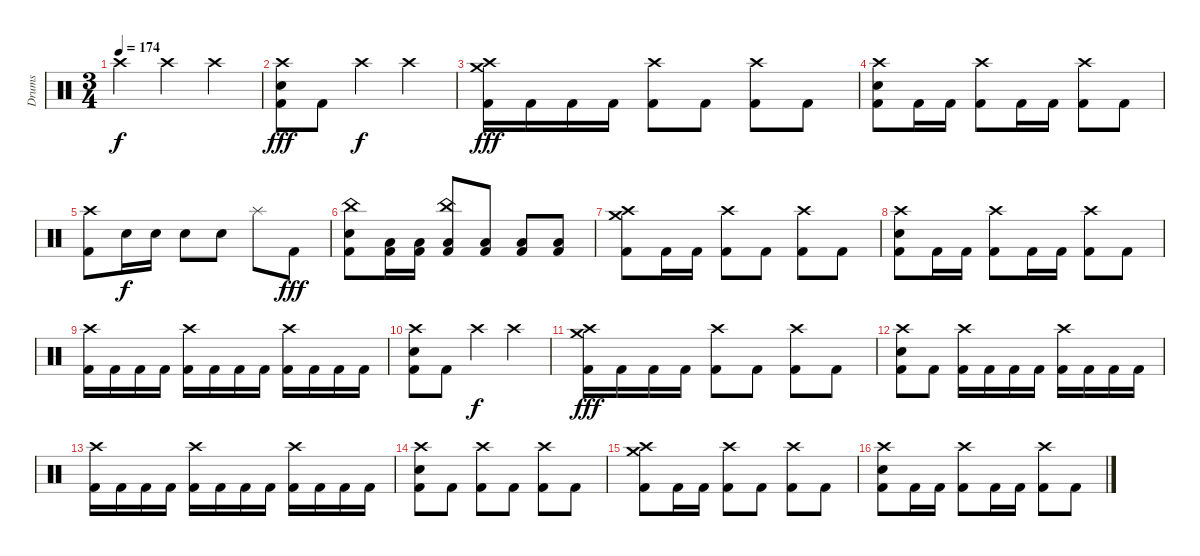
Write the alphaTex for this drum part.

\track ("Drums" "Drums") {instrument percussion}
\staff {score}
\articulation defaults
\ts (3 4)
\tempo 174
\clef neutral
\ks c "Crash high (hit)".4{dy f} "Crash high (hit)".4 "Crash high (hit)".4
|
("Crash high (hit)" "Snare (hit) 2" "Kick (hit) 2").8{dy fff} "Kick (hit) 2".8 "Crash high (hit)".4{dy f} "Crash high (hit)".4 |
("Crash medium (hit)" "Crash high (hit)" "Kick (hit) 2").16{dy fff} "Kick (hit) 2".16 "Kick (hit) 2".16 "Kick (hit) 2".16 ("Crash high (hit)" "Kick (hit) 2").8 "Kick (hit) 2".8 ("Crash high (hit)" "Kick (hit) 2").8 "Kick (hit) 2".8 |
("Crash high (hit)" "Snare (hit) 2" "Kick (hit) 2").8 "Kick (hit) 2".16 "Kick (hit) 2".16 ("Crash high (hit)" "Kick (hit) 2").8 "Kick (hit) 2".16 "Kick (hit) 2".16 ("Crash high (hit)" "Kick (hit) 2").8 "Kick (hit) 2".8 |
("Crash high (hit)" "Kick (hit) 2").8 "Snare (hit) 2".16{dy f} "Snare (hit) 2".16 "Snare (hit) 2".8 "Snare (hit) 2".8 "Splash (hit)".8 "Kick (hit) 2".8{dy fff} |
("China (hit)" "Snare (hit) 2" "Kick (hit) 2").8 ("Low Floor Tom (hit)" "Kick (hit) 2").16 ("Low Floor Tom (hit)" "Kick (hit) 2").16 ("China (hit)" "Low Floor Tom (hit)" "Kick (hit) 2").8 ("Low Floor Tom (hit)" "Kick (hit) 2").8 ("Low Floor Tom (hit)" "Kick (hit) 2").8 ("Low Floor Tom (hit)" "Kick (hit) 2").8 |
("Crash medium (hit)" "Crash high (hit)" "Kick (hit) 2").8 "Kick (hit) 2".16 "Kick (hit) 2".16 ("Crash high (hit)" "Kick (hit) 2").8 "Kick (hit) 2".8 ("Crash high (hit)" "Kick (hit) 2").8 "Kick (hit) 2".8 |
("Crash high (hit)" "Snare (hit) 2" "Kick (hit) 2").8 "Kick (hit) 2".16 "Kick (hit) 2".16 ("Crash high (hit)" "Kick (hit) 2").8 "Kick (hit) 2".16 "Kick (hit) 2".16 ("Crash high (hit)" "Kick (hit) 2").8 "Kick (hit) 2".8 |
("Crash high (hit)" "Kick (hit) 2").16 "Kick (hit) 2".16 "Kick (hit) 2".16 "Kick (hit) 2".16 ("Crash high (hit)" "Kick (hit) 2").16 "Kick (hit) 2".16 "Kick (hit) 2".16 "Kick (hit) 2".16 ("Crash high (hit)" "Kick (hit) 2").16 "Kick (hit) 2".16 "Kick (hit) 2".16 "Kick (hit) 2".16 |
("Crash high (hit)" "Snare (hit) 2" "Kick (hit) 2").8 "Kick (hit) 2".8 "Crash high (hit)".4{dy f} "Crash high (hit)".4 |
("Crash medium (hit)" "Crash high (hit)" "Kick (hit) 2").16{dy fff} "Kick (hit) 2".16 "Kick (hit) 2".16 "Kick (hit) 2".16 ("Crash high (hit)" "Kick (hit) 2").8 "Kick (hit) 2".8 ("Crash high (hit)" "Kick (hit) 2").8 "Kick (hit) 2".8 |
("Crash high (hit)" "Snare (hit) 2" "Kick (hit) 2").8 "Kick (hit) 2".8 ("Crash high (hit)" "Kick (hit) 2").16 "Kick (hit) 2".16 "Kick (hit) 2".16 "Kick (hit) 2".16 ("Crash high (hit)" "Kick (hit) 2").16 "Kick (hit) 2".16 "Kick (hit) 2".16 "Kick (hit) 2".16 |
("Crash high (hit)" "Kick (hit) 2").16 "Kick (hit) 2".16 "Kick (hit) 2".16 "Kick (hit) 2".16 ("Crash high (hit)" "Kick (hit) 2").16 "Kick (hit) 2".16 "Kick (hit) 2".16 "Kick (hit) 2".16 ("Crash high (hit)" "Kick (hit) 2").16 "Kick (hit) 2".16 "Kick (hit) 2".16 "Kick (hit) 2".16 |
("Crash high (hit)" "Snare (hit) 2" "Kick (hit) 2").8 "Kick (hit) 2".8 ("Crash high (hit)" "Kick (hit) 2").8 "Kick (hit) 2".8 ("Crash high (hit)" "Kick (hit) 2").8 "Kick (hit) 2".8 |
("Crash medium (hit)" "Crash high (hit)" "Kick (hit) 2").8 "Kick (hit) 2".16 "Kick (hit) 2".16 ("Crash high (hit)" "Kick (hit) 2").8 "Kick (hit) 2".8 ("Crash high (hit)" "Kick (hit) 2").8 "Kick (hit) 2".8 |
("Crash high (hit)" "Snare (hit) 2" "Kick (hit) 2").8 "Kick (hit) 2".16 "Kick (hit) 2".16 ("Crash high (hit)" "Kick (hit) 2").8 "Kick (hit) 2".16 "Kick (hit) 2".16 ("Crash high (hit)" "Kick (hit) 2").8 "Kick (hit) 2".8
